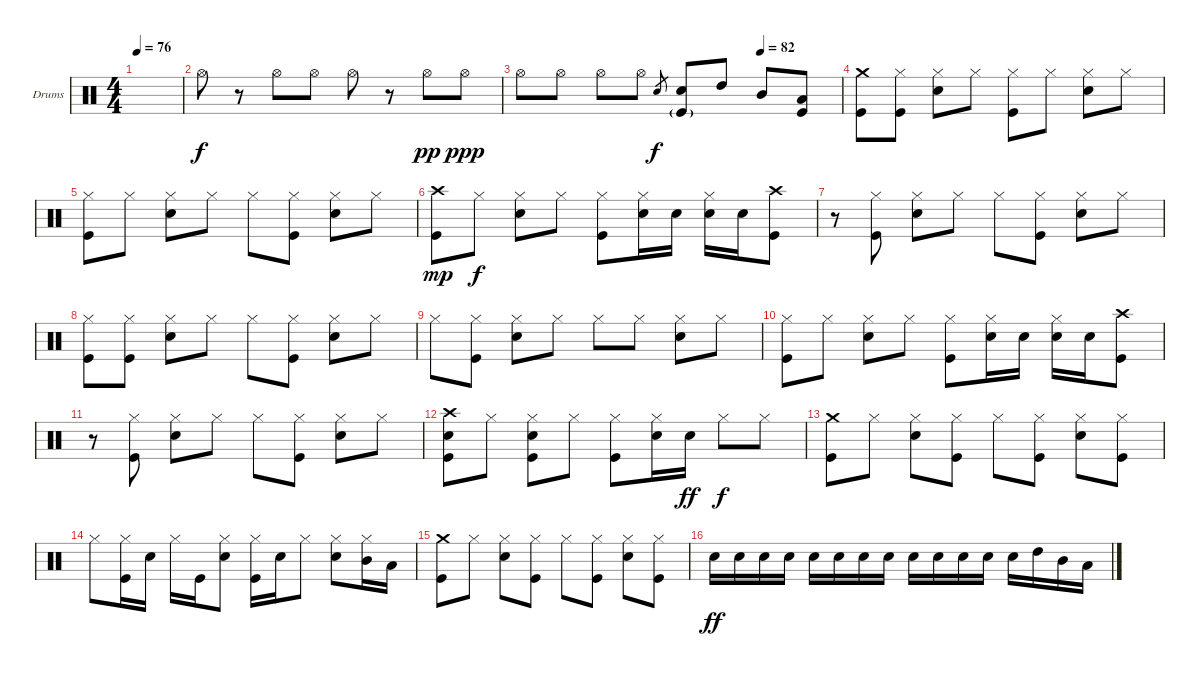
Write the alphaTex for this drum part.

\defaultSystemsLayout 4
\bracketExtendMode groupsimilarinstruments
\firstSystemTrackNameOrientation horizontal
\otherSystemsTrackNameOrientation horizontal
\track ("Drums [Jason]" "Drums") {instrument percussion}
\staff {score}
\articulation defaults
\ts (4 4)
\tempo 76
\clef neutral
\scale
0.333333
\ks c
|
"Hi-Hat (open)".8 r.8 "Hi-Hat (open)".8 "Hi-Hat (open)".8 "Hi-Hat (open)".8 r.8 "Hi-Hat (open)".8{dy pp} "Hi-Hat (open)".8{dy ppp} |
\tempo (82 0.75)
"Hi-Hat (open)".8 "Hi-Hat (open)".8 "Hi-Hat (open)".8 "Hi-Hat (open)".8 "Snare (hit) 2".8{gr dy f} ("Snare (hit) 2" "Kick (hit)"{g}).8 "High Tom (hit)".8 "Mid Tom (hit)".8 ("Low Tom (hit)" "Kick (hit)").8 |
("Crash medium (hit)" "Kick (hit)").8 ("Hi-Hat (closed)" "Kick (hit)").8 ("Hi-Hat (closed)" "Snare (hit) 2").8 "Hi-Hat (closed)".8 ("Hi-Hat (closed)" "Kick (hit)").8 "Hi-Hat (closed)".8 ("Hi-Hat (closed)" "Snare (hit) 2").8 "Hi-Hat (closed)".8 |
("Hi-Hat (closed)" "Kick (hit)").8 "Hi-Hat (closed)".8 ("Hi-Hat (closed)" "Snare (hit) 2").8 "Hi-Hat (closed)".8 "Hi-Hat (closed)".8 ("Hi-Hat (closed)" "Kick (hit)").8 ("Hi-Hat (closed)" "Snare (hit) 2").8 "Hi-Hat (closed)".8 |
("Crash high (hit)" "Kick (hit)").8{dy mp} "Hi-Hat (closed)".8{dy f} ("Hi-Hat (closed)" "Snare (hit) 2").8 "Hi-Hat (closed)".8 ("Hi-Hat (closed)" "Kick (hit)").8 ("Hi-Hat (closed)" "Snare (hit) 2").16 "Snare (hit) 2".16 ("Hi-Hat (closed)" "Snare (hit) 2").16 "Snare (hit) 2".16 ("Crash high (hit)" "Kick (hit)").8 |
r.8 ("Hi-Hat (closed)" "Kick (hit)").8 ("Hi-Hat (closed)" "Snare (hit) 2").8 "Hi-Hat (closed)".8 "Hi-Hat (closed)".8 ("Hi-Hat (closed)" "Kick (hit)").8 ("Hi-Hat (closed)" "Snare (hit) 2").8 "Hi-Hat (closed)".8 |
("Hi-Hat (closed)" "Kick (hit)").8 ("Hi-Hat (closed)" "Kick (hit)").8 ("Hi-Hat (closed)" "Snare (hit) 2").8 "Hi-Hat (closed)".8 "Hi-Hat (closed)".8 ("Hi-Hat (closed)" "Kick (hit)").8 ("Hi-Hat (closed)" "Snare (hit) 2").8 "Hi-Hat (closed)".8 |
"Hi-Hat (closed)".8 ("Hi-Hat (closed)" "Kick (hit)").8 ("Hi-Hat (closed)" "Snare (hit) 2").8 "Hi-Hat (closed)".8 "Hi-Hat (closed)".8 "Hi-Hat (closed)".8 ("Hi-Hat (closed)" "Snare (hit) 2").8 "Hi-Hat (closed)".8 |
("Hi-Hat (closed)" "Kick (hit)").8 "Hi-Hat (closed)".8 ("Hi-Hat (closed)" "Snare (hit) 2").8 "Hi-Hat (closed)".8 ("Hi-Hat (closed)" "Kick (hit)").8 ("Hi-Hat (closed)" "Snare (hit) 2").16 "Snare (hit) 2".16 ("Hi-Hat (closed)" "Snare (hit) 2").16 "Snare (hit) 2".16 ("Crash high (hit)" "Kick (hit)").8 |
r.8 ("Hi-Hat (closed)" "Kick (hit)").8 ("Hi-Hat (closed)" "Snare (hit) 2").8 "Hi-Hat (closed)".8 "Hi-Hat (closed)".8 ("Hi-Hat (closed)" "Kick (hit)").8 ("Hi-Hat (closed)" "Snare (hit) 2").8 "Hi-Hat (closed)".8 |
("Crash high (hit)" "Snare (hit) 2" "Kick (hit)").8 "Hi-Hat (closed)".8 ("Hi-Hat (closed)" "Snare (hit) 2" "Kick (hit)").8 "Hi-Hat (closed)".8 ("Hi-Hat (closed)" "Kick (hit)").8 ("Hi-Hat (closed)" "Snare (hit) 2").16 "Snare (hit) 2".16{dy ff} "Hi-Hat (closed)".8{dy f} "Hi-Hat (closed)".8 |
("Crash medium (hit)" "Kick (hit)").8 "Hi-Hat (closed)".8 ("Hi-Hat (closed)" "Snare (hit) 2").8 ("Hi-Hat (closed)" "Kick (hit)").8 "Hi-Hat (closed)".8 ("Hi-Hat (closed)" "Kick (hit)").8 ("Hi-Hat (closed)" "Snare (hit) 2").8 ("Hi-Hat (closed)" "Kick (hit)").8 |
"Hi-Hat (closed)".8 ("Hi-Hat (closed)" "Kick (hit)").16 "Snare (hit) 2".16 "Hi-Hat (closed)".16 "Kick (hit)".16 ("Hi-Hat (closed)" "Snare (hit) 2").8 ("Hi-Hat (closed)" "Kick (hit)").16 "Snare (hit) 2".16 "Hi-Hat (closed)".8 ("Hi-Hat (closed)" "Snare (hit) 2").8 ("Hi-Hat (closed)" "Mid Tom (hit)").16 "Low Tom (hit)".16 |
("Crash medium (hit)" "Kick (hit)").8 "Hi-Hat (closed)".8 ("Hi-Hat (closed)" "Snare (hit) 2").8 ("Hi-Hat (closed)" "Kick (hit)").8 "Hi-Hat (closed)".8 ("Hi-Hat (closed)" "Kick (hit)").8 ("Hi-Hat (closed)" "Snare (hit) 2").8 ("Hi-Hat (closed)" "Kick (hit)").8 |
"Snare (hit) 2".16{dy ff} "Snare (hit) 2".16 "Snare (hit) 2".16 "Snare (hit) 2".16 "Snare (hit) 2".16 "Snare (hit) 2".16 "Snare (hit) 2".16 "Snare (hit) 2".16 "Snare (hit) 2".16 "Snare (hit) 2".16 "Snare (hit) 2".16 "Snare (hit) 2".16 "Snare (hit) 2".16 "High Tom (hit)".16 "Mid Tom (hit)".16 "Low Tom (hit)".16
